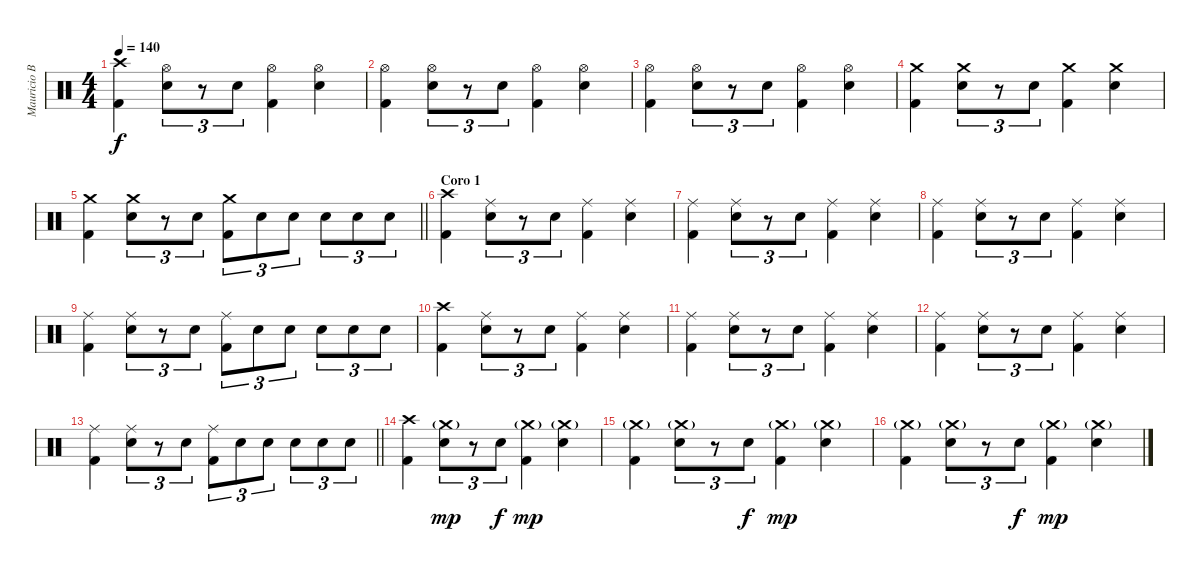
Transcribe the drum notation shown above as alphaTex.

\track ("Mauricio Basualto" "Mauricio B") {instrument percussion}
\staff {score}
\articulation defaults
\ts (4 4)
\tempo 140
\clef neutral
\ks c
("Crash high (hit)" "Kick (hit) 2").4{dy f} ("Hi-Hat (open)" "Electric Snare (hit)").8{tu (3 2)} r.8{tu (3 2)} "Electric Snare (hit)".8{tu (3 2)} ("Hi-Hat (open)" "Kick (hit) 2").4 ("Hi-Hat (open)" "Electric Snare (hit)").4 |
("Hi-Hat (open)" "Kick (hit) 2").4 ("Hi-Hat (open)" "Electric Snare (hit)").8{tu (3 2)} r.8{tu (3 2)} "Electric Snare (hit)".8{tu (3 2)} ("Hi-Hat (open)" "Kick (hit) 2").4 ("Hi-Hat (open)" "Electric Snare (hit)").4 |
("Hi-Hat (open)" "Kick (hit) 2").4 ("Hi-Hat (open)" "Electric Snare (hit)").8{tu (3 2)} r.8{tu (3 2)} "Electric Snare (hit)".8{tu (3 2)} ("Hi-Hat (open)" "Kick (hit) 2").4 ("Hi-Hat (open)" "Electric Snare (hit)").4 |
("Crash medium (hit)" "Kick (hit) 2").4 ("Crash medium (hit)" "Electric Snare (hit)").8{tu (3 2)} r.8{tu (3 2)} "Electric Snare (hit)".8{tu (3 2)} ("Crash medium (hit)" "Kick (hit) 2").4 ("Crash medium (hit)" "Electric Snare (hit)").4 |
\barLineRight lightlight
("Crash medium (hit)" "Kick (hit) 2").4 ("Crash medium (hit)" "Electric Snare (hit)").8{tu (3 2)} r.8{tu (3 2)} "Electric Snare (hit)".8{tu (3 2)} ("Crash medium (hit)" "Kick (hit) 2").8{tu (3 2)} "Electric Snare (hit)".8{tu (3 2)} "Electric Snare (hit)".8{tu (3 2)} "Electric Snare (hit)".8{tu (3 2)} "Electric Snare (hit)".8{tu (3 2)} "Electric Snare (hit)".8{tu (3 2)} |
\section ("" "Coro 1")
("Crash high (hit)" "Kick (hit) 2").4 ("Ride (middle)" "Electric Snare (hit)").8{tu (3 2)} r.8{tu (3 2)} "Electric Snare (hit)".8{tu (3 2)} ("Ride (middle)" "Kick (hit) 2").4 ("Ride (middle)" "Electric Snare (hit)").4 |
("Ride (middle)" "Kick (hit) 2").4 ("Ride (middle)" "Electric Snare (hit)").8{tu (3 2)} r.8{tu (3 2)} "Electric Snare (hit)".8{tu (3 2)} ("Ride (middle)" "Kick (hit) 2").4 ("Ride (middle)" "Electric Snare (hit)").4 |
("Ride (middle)" "Kick (hit) 2").4 ("Ride (middle)" "Electric Snare (hit)").8{tu (3 2)} r.8{tu (3 2)} "Electric Snare (hit)".8{tu (3 2)} ("Ride (middle)" "Kick (hit) 2").4 ("Ride (middle)" "Electric Snare (hit)").4 |
("Ride (middle)" "Kick (hit) 2").4 ("Ride (middle)" "Electric Snare (hit)").8{tu (3 2)} r.8{tu (3 2)} "Electric Snare (hit)".8{tu (3 2)} ("Ride (middle)" "Kick (hit) 2").8{tu (3 2)} "Electric Snare (hit)".8{tu (3 2)} "Electric Snare (hit)".8{tu (3 2)} "Electric Snare (hit)".8{tu (3 2)} "Electric Snare (hit)".8{tu (3 2)} "Electric Snare (hit)".8{tu (3 2)} |
("Crash high (hit)" "Kick (hit) 2").4 ("Ride (middle)" "Electric Snare (hit)").8{tu (3 2)} r.8{tu (3 2)} "Electric Snare (hit)".8{tu (3 2)} ("Ride (middle)" "Kick (hit) 2").4 ("Ride (middle)" "Electric Snare (hit)").4 |
("Ride (middle)" "Kick (hit) 2").4 ("Ride (middle)" "Electric Snare (hit)").8{tu (3 2)} r.8{tu (3 2)} "Electric Snare (hit)".8{tu (3 2)} ("Ride (middle)" "Kick (hit) 2").4 ("Ride (middle)" "Electric Snare (hit)").4 |
("Ride (middle)" "Kick (hit) 2").4 ("Ride (middle)" "Electric Snare (hit)").8{tu (3 2)} r.8{tu (3 2)} "Electric Snare (hit)".8{tu (3 2)} ("Ride (middle)" "Kick (hit) 2").4 ("Ride (middle)" "Electric Snare (hit)").4 |
\barLineRight lightlight
("Ride (middle)" "Kick (hit) 2").4 ("Ride (middle)" "Electric Snare (hit)").8{tu (3 2)} r.8{tu (3 2)} "Electric Snare (hit)".8{tu (3 2)} ("Ride (middle)" "Kick (hit) 2").8{tu (3 2)} "Electric Snare (hit)".8{tu (3 2)} "Electric Snare (hit)".8{tu (3 2)} "Electric Snare (hit)".8{tu (3 2)} "Electric Snare (hit)".8{tu (3 2)} "Electric Snare (hit)".8{tu (3 2)} |
("Crash high (hit)" "Kick (hit) 2").4 ("Crash medium (hit)"{g} "Electric Snare (hit)").8{tu (3 2) dy mp} r.8{tu (3 2)} "Electric Snare (hit)".8{tu (3 2) dy f} ("Crash medium (hit)"{g} "Kick (hit) 2").4{dy mp} ("Crash medium (hit)"{g} "Electric Snare (hit)").4 |
("Crash medium (hit)"{g} "Kick (hit) 2").4 ("Crash medium (hit)"{g} "Electric Snare (hit)").8{tu (3 2)} r.8{tu (3 2)} "Electric Snare (hit)".8{tu (3 2) dy f} ("Crash medium (hit)"{g} "Kick (hit) 2").4{dy mp} ("Crash medium (hit)"{g} "Electric Snare (hit)").4 |
("Crash medium (hit)"{g} "Kick (hit) 2").4 ("Crash medium (hit)"{g} "Electric Snare (hit)").8{tu (3 2)} r.8{tu (3 2)} "Electric Snare (hit)".8{tu (3 2) dy f} ("Crash medium (hit)"{g} "Kick (hit) 2").4{dy mp} ("Crash medium (hit)"{g} "Electric Snare (hit)").4
